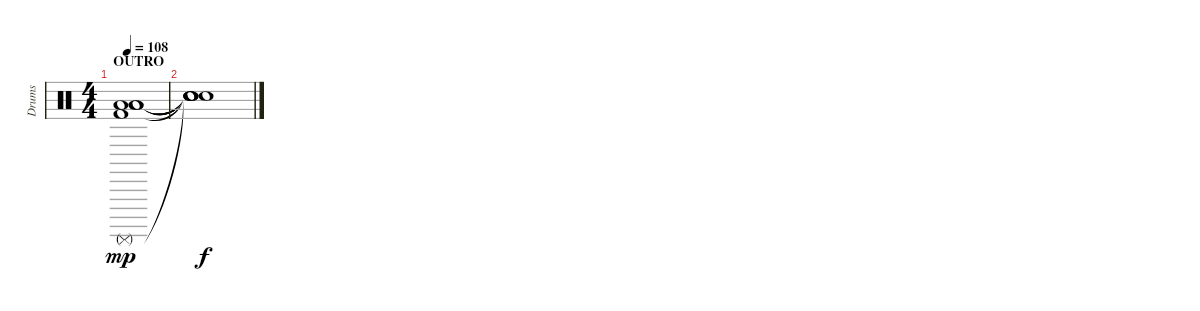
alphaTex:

\track ("Drums" "Drums") {instrument percussion}
\staff {score}
\articulation defaults
\ts (4 4)
\section ("" "OUTRO")
\tempo 108
\clef neutral
\ks c
("Surdo (mute)" "Kick (hit) 2" "Low Floor Tom (hit)" "Low Floor Tom (hit)" "Low Floor Tom (hit)").1{dy mp} |
("Snare (hit)"{t} "Snare (hit)"{t} "Snare (hit)"{t} "Snare (hit)"{t} "Snare (hit)"{t}).1{dy f}
